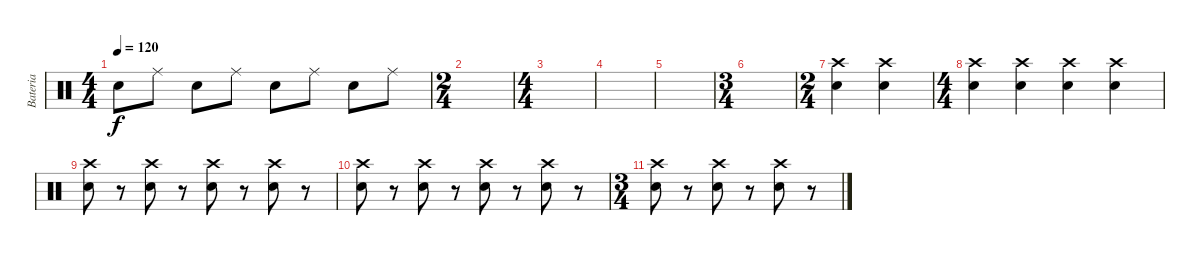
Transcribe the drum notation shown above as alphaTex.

\track ("Bateria" "Bateria") {instrument percussion}
\staff {score}
\articulation defaults
\ts (4 4)
\tempo 120
\clef neutral
\ks c "Electric Snare (hit)".8{dy f} "Ride (middle)".8 "Electric Snare (hit)".8 "Ride (middle)".8 "Electric Snare (hit)".8 "Ride (middle)".8 "Electric Snare (hit)".8 "Ride (middle)".8
|
\ts (2 4)
|
\ts (4 4)
|
|
|
\ts (3 4)
|
\ts (2 4)
("Electric Snare (hit)" "Crash high (hit)").4 ("Electric Snare (hit)" "Crash high (hit)").4 |
\ts (4 4)
("Crash high (hit)" "Electric Snare (hit)").4 ("Crash high (hit)" "Electric Snare (hit)").4 ("Crash high (hit)" "Electric Snare (hit)").4 ("Crash high (hit)" "Electric Snare (hit)").4 |
("Crash high (hit)" "Electric Snare (hit)").8 r.8 ("Crash high (hit)" "Electric Snare (hit)").8 r.8 ("Crash high (hit)" "Electric Snare (hit)").8 r.8 ("Crash high (hit)" "Electric Snare (hit)").8 r.8 |
("Crash high (hit)" "Electric Snare (hit)").8 r.8 ("Crash high (hit)" "Electric Snare (hit)").8 r.8 ("Crash high (hit)" "Electric Snare (hit)").8 r.8 ("Crash high (hit)" "Electric Snare (hit)").8 r.8 |
\ts (3 4)
("Crash high (hit)" "Electric Snare (hit)").8 r.8 ("Crash high (hit)" "Electric Snare (hit)").8 r.8 ("Crash high (hit)" "Electric Snare (hit)").8 r.8
